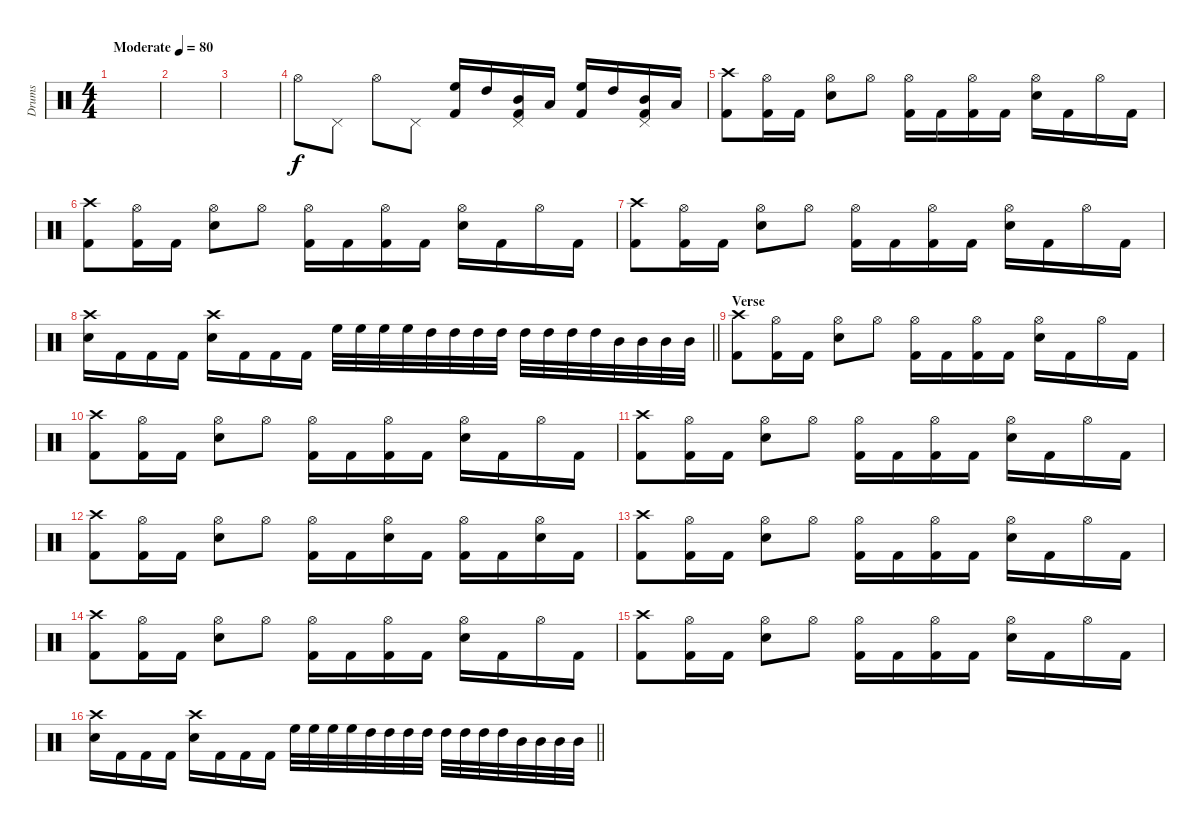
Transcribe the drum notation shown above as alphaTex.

\track ("Drums" "Drums") {instrument percussion}
\staff {score}
\articulation defaults
\ts (4 4)
\tempo (80 "Moderate")
\clef neutral
\ks c
|
|
|
"Hi-Hat (open)".8 "Pedal Hi-Hat (hit)".8 "Hi-Hat (open)".8 "Pedal Hi-Hat (hit)".8 ("High Floor Tom (hit)" "Kick (hit) 2").16 "High Tom (hit)".16 ("Mid Tom (hit)" "Pedal Hi-Hat (hit)" "Kick (hit) 2").16 "Low Tom (hit)".16 ("High Floor Tom (hit)" "Kick (hit) 2").16 "High Tom (hit)".16 ("Mid Tom (hit)" "Pedal Hi-Hat (hit)" "Kick (hit) 2").16 "Low Tom (hit)".16 |
("Crash high (hit)" "Kick (hit) 2").8 ("Hi-Hat (open)" "Kick (hit) 2").16 "Kick (hit) 2".16 ("Hi-Hat (open)" "Electric Snare (hit)").8 "Hi-Hat (open)".8 ("Hi-Hat (open)" "Kick (hit) 2").16 "Kick (hit) 2".16 ("Hi-Hat (open)" "Kick (hit) 2").16 "Kick (hit) 2".16 ("Hi-Hat (open)" "Electric Snare (hit)").16 "Kick (hit) 2".16 "Hi-Hat (open)".16 "Kick (hit) 2".16 |
("Crash high (hit)" "Kick (hit) 2").8 ("Hi-Hat (open)" "Kick (hit) 2").16 "Kick (hit) 2".16 ("Hi-Hat (open)" "Electric Snare (hit)").8 "Hi-Hat (open)".8 ("Hi-Hat (open)" "Kick (hit) 2").16 "Kick (hit) 2".16 ("Hi-Hat (open)" "Kick (hit) 2").16 "Kick (hit) 2".16 ("Hi-Hat (open)" "Electric Snare (hit)").16 "Kick (hit) 2".16 "Hi-Hat (open)".16 "Kick (hit) 2".16 |
("Crash high (hit)" "Kick (hit) 2").8 ("Hi-Hat (open)" "Kick (hit) 2").16 "Kick (hit) 2".16 ("Hi-Hat (open)" "Electric Snare (hit)").8 "Hi-Hat (open)".8 ("Hi-Hat (open)" "Kick (hit) 2").16 "Kick (hit) 2".16 ("Hi-Hat (open)" "Kick (hit) 2").16 "Kick (hit) 2".16 ("Hi-Hat (open)" "Electric Snare (hit)").16 "Kick (hit) 2".16 "Hi-Hat (open)".16 "Kick (hit) 2".16 |
\barLineRight lightlight
("Crash high (hit)" "Electric Snare (hit)").16 "Kick (hit) 2".16 "Kick (hit) 2".16 "Kick (hit) 2".16 ("Crash high (hit)" "Electric Snare (hit)").16 "Kick (hit) 2".16 "Kick (hit) 2".16 "Kick (hit) 2".16 "High Floor Tom (hit)".32 "High Floor Tom (hit)".32 "High Floor Tom (hit)".32 "High Floor Tom (hit)".32 "High Tom (hit)".32 "High Tom (hit)".32 "High Tom (hit)".32 "High Tom (hit)".32 "High Tom (hit)".32 "High Tom (hit)".32 "High Tom (hit)".32 "High Tom (hit)".32 "Mid Tom (hit)".32 "Mid Tom (hit)".32 "Mid Tom (hit)".32 "Mid Tom (hit)".32 |
\section ("" "Verse")
("Crash high (hit)" "Kick (hit) 2").8 ("Hi-Hat (open)" "Kick (hit) 2").16 "Kick (hit) 2".16 ("Hi-Hat (open)" "Electric Snare (hit)").8 "Hi-Hat (open)".8 ("Hi-Hat (open)" "Kick (hit) 2").16 "Kick (hit) 2".16 ("Hi-Hat (open)" "Kick (hit) 2").16 "Kick (hit) 2".16 ("Hi-Hat (open)" "Electric Snare (hit)").16 "Kick (hit) 2".16 "Hi-Hat (open)".16 "Kick (hit) 2".16 |
("Crash high (hit)" "Kick (hit) 2").8 ("Hi-Hat (open)" "Kick (hit) 2").16 "Kick (hit) 2".16 ("Hi-Hat (open)" "Electric Snare (hit)").8 "Hi-Hat (open)".8 ("Hi-Hat (open)" "Kick (hit) 2").16 "Kick (hit) 2".16 ("Hi-Hat (open)" "Kick (hit) 2").16 "Kick (hit) 2".16 ("Hi-Hat (open)" "Electric Snare (hit)").16 "Kick (hit) 2".16 "Hi-Hat (open)".16 "Kick (hit) 2".16 |
("Crash high (hit)" "Kick (hit) 2").8 ("Hi-Hat (open)" "Kick (hit) 2").16 "Kick (hit) 2".16 ("Hi-Hat (open)" "Electric Snare (hit)").8 "Hi-Hat (open)".8 ("Hi-Hat (open)" "Kick (hit) 2").16 "Kick (hit) 2".16 ("Hi-Hat (open)" "Kick (hit) 2").16 "Kick (hit) 2".16 ("Hi-Hat (open)" "Electric Snare (hit)").16 "Kick (hit) 2".16 "Hi-Hat (open)".16 "Kick (hit) 2".16 |
("Crash high (hit)" "Kick (hit) 2").8 ("Hi-Hat (open)" "Kick (hit) 2").16 "Kick (hit) 2".16 ("Hi-Hat (open)" "Electric Snare (hit)").8 "Hi-Hat (open)".8 ("Hi-Hat (open)" "Kick (hit) 2").16 "Kick (hit) 2".16 ("Hi-Hat (open)" "Electric Snare (hit)").16 "Kick (hit) 2".16 ("Hi-Hat (open)" "Kick (hit) 2").16 "Kick (hit) 2".16 ("Hi-Hat (open)" "Electric Snare (hit)").16 "Kick (hit) 2".16 |
("Crash high (hit)" "Kick (hit) 2").8 ("Hi-Hat (open)" "Kick (hit) 2").16 "Kick (hit) 2".16 ("Hi-Hat (open)" "Electric Snare (hit)").8 "Hi-Hat (open)".8 ("Hi-Hat (open)" "Kick (hit) 2").16 "Kick (hit) 2".16 ("Hi-Hat (open)" "Kick (hit) 2").16 "Kick (hit) 2".16 ("Hi-Hat (open)" "Electric Snare (hit)").16 "Kick (hit) 2".16 "Hi-Hat (open)".16 "Kick (hit) 2".16 |
("Crash high (hit)" "Kick (hit) 2").8 ("Hi-Hat (open)" "Kick (hit) 2").16 "Kick (hit) 2".16 ("Hi-Hat (open)" "Electric Snare (hit)").8 "Hi-Hat (open)".8 ("Hi-Hat (open)" "Kick (hit) 2").16 "Kick (hit) 2".16 ("Hi-Hat (open)" "Kick (hit) 2").16 "Kick (hit) 2".16 ("Hi-Hat (open)" "Electric Snare (hit)").16 "Kick (hit) 2".16 "Hi-Hat (open)".16 "Kick (hit) 2".16 |
("Crash high (hit)" "Kick (hit) 2").8 ("Hi-Hat (open)" "Kick (hit) 2").16 "Kick (hit) 2".16 ("Hi-Hat (open)" "Electric Snare (hit)").8 "Hi-Hat (open)".8 ("Hi-Hat (open)" "Kick (hit) 2").16 "Kick (hit) 2".16 ("Hi-Hat (open)" "Kick (hit) 2").16 "Kick (hit) 2".16 ("Hi-Hat (open)" "Electric Snare (hit)").16 "Kick (hit) 2".16 "Hi-Hat (open)".16 "Kick (hit) 2".16 |
\barLineRight lightlight
("Crash high (hit)" "Electric Snare (hit)").16 "Kick (hit) 2".16 "Kick (hit) 2".16 "Kick (hit) 2".16 ("Crash high (hit)" "Electric Snare (hit)").16 "Kick (hit) 2".16 "Kick (hit) 2".16 "Kick (hit) 2".16 "High Floor Tom (hit)".32 "High Floor Tom (hit)".32 "High Floor Tom (hit)".32 "High Floor Tom (hit)".32 "High Tom (hit)".32 "High Tom (hit)".32 "High Tom (hit)".32 "High Tom (hit)".32 "High Tom (hit)".32 "High Tom (hit)".32 "High Tom (hit)".32 "High Tom (hit)".32 "Mid Tom (hit)".32 "Mid Tom (hit)".32 "Mid Tom (hit)".32 "Mid Tom (hit)".32
